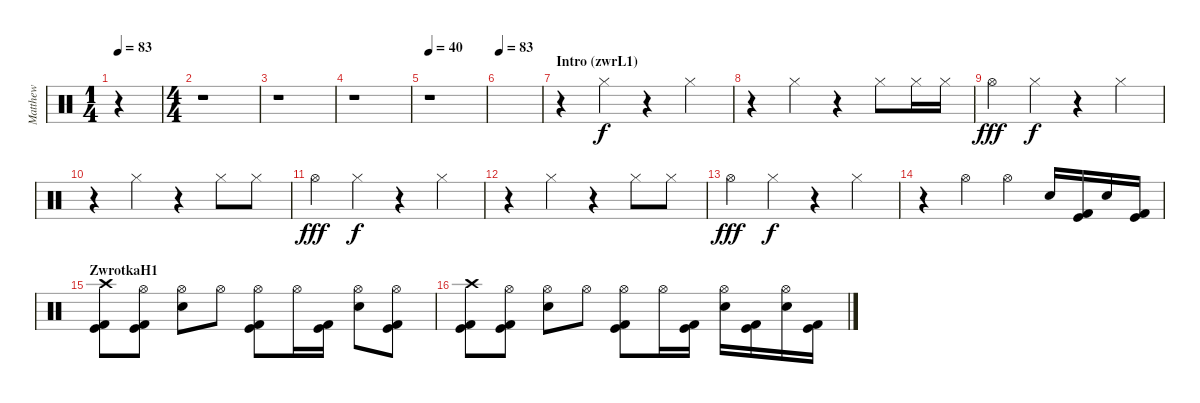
\track ("Matthew" "Matthew") {instrument percussion}
\staff {score}
\articulation defaults
\ts (1 4)
\tempo 83
\tempo 60
\tempo 83
\clef neutral
\ks c
r.4{dy f} |
\ts (4 4)
r.1 |
r.1 |
r.1 |
\tempo 40
r.1 |
\tempo 83
|
\section ("" "Intro (zwrL1)")
r.4{volume 12} "Hi-Hat (closed)".4 r.4 "Hi-Hat (closed)".4 |
r.4 "Hi-Hat (closed)".4 r.4 "Hi-Hat (closed)".8 "Hi-Hat (closed)".16 "Hi-Hat (closed)".16 |
"Hi-Hat (open)".4{dy fff} "Hi-Hat (closed)".4{dy f} r.4 "Hi-Hat (closed)".4 |
r.4 "Hi-Hat (closed)".4 r.4 "Hi-Hat (closed)".8 "Hi-Hat (closed)".8 |
"Hi-Hat (open)".4{dy fff} "Hi-Hat (closed)".4{dy f} r.4 "Hi-Hat (closed)".4 |
r.4 "Hi-Hat (closed)".4 r.4 "Hi-Hat (closed)".8 "Hi-Hat (closed)".8 |
"Hi-Hat (open)".4{dy fff} "Hi-Hat (closed)".4{dy f} r.4 "Hi-Hat (closed)".4{volume 16} |
r.4 "Hi-Hat (open)".4 "Hi-Hat (open)".4 "Snare (hit) 2".16 ("Kick (hit) 2" "Kick (hit)").16 "Snare (hit) 2".16 ("Kick (hit) 2" "Kick (hit)").16 |
\section ("" "ZwrotkaH1")
("Kick (hit) 2" "Kick (hit)" "Crash high (hit)").8 ("Kick (hit) 2" "Kick (hit)" "Hi-Hat (open)").8 ("Snare (hit) 2" "Hi-Hat (open)").8 "Hi-Hat (open)".8 ("Hi-Hat (open)" "Kick (hit) 2" "Kick (hit)").8 "Hi-Hat (open)".16 ("Kick (hit) 2" "Kick (hit)").16 ("Snare (hit) 2" "Hi-Hat (open)").8 ("Kick (hit) 2" "Kick (hit)" "Hi-Hat (open)").8 |
("Kick (hit) 2" "Kick (hit)" "Crash high (hit)").8 ("Kick (hit) 2" "Kick (hit)" "Hi-Hat (open)").8 ("Snare (hit) 2" "Hi-Hat (open)").8 "Hi-Hat (open)".8 ("Hi-Hat (open)" "Kick (hit) 2" "Kick (hit)").8 "Hi-Hat (open)".16 ("Kick (hit) 2" "Kick (hit)").16 ("Snare (hit) 2" "Hi-Hat (open)").16 ("Kick (hit) 2" "Kick (hit)").16 ("Snare (hit) 2" "Hi-Hat (open)").16 ("Kick (hit) 2" "Kick (hit)").16
